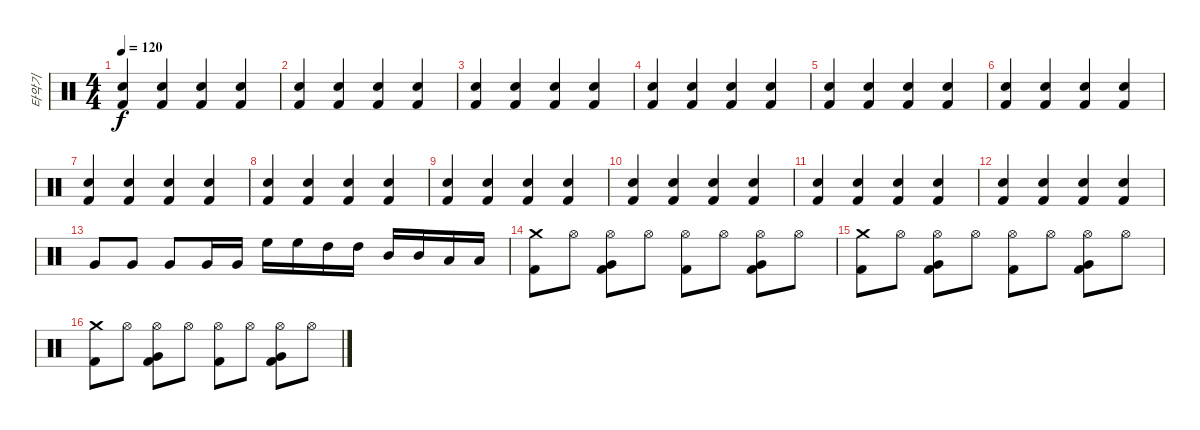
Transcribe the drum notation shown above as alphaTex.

\track ("타악기" "타악기") {instrument percussion}
\staff {score}
\articulation defaults
\ts (4 4)
\tempo 120
\clef neutral
\ks c
("Kick (hit) 2" "Hand Clap (hit)").4{dy f} ("Kick (hit) 2" "Hand Clap (hit)").4 ("Kick (hit) 2" "Hand Clap (hit)").4 ("Kick (hit) 2" "Hand Clap (hit)").4 |
("Kick (hit) 2" "Hand Clap (hit)").4 ("Kick (hit) 2" "Hand Clap (hit)").4 ("Kick (hit) 2" "Hand Clap (hit)").4 ("Kick (hit) 2" "Hand Clap (hit)").4 |
("Kick (hit) 2" "Hand Clap (hit)").4 ("Kick (hit) 2" "Hand Clap (hit)").4 ("Kick (hit) 2" "Hand Clap (hit)").4 ("Kick (hit) 2" "Hand Clap (hit)").4 |
("Kick (hit) 2" "Hand Clap (hit)").4 ("Kick (hit) 2" "Hand Clap (hit)").4 ("Kick (hit) 2" "Hand Clap (hit)").4 ("Kick (hit) 2" "Hand Clap (hit)").4 |
("Kick (hit) 2" "Hand Clap (hit)").4 ("Kick (hit) 2" "Hand Clap (hit)").4 ("Kick (hit) 2" "Hand Clap (hit)").4 ("Kick (hit) 2" "Hand Clap (hit)").4 |
("Kick (hit) 2" "Hand Clap (hit)").4 ("Kick (hit) 2" "Hand Clap (hit)").4 ("Kick (hit) 2" "Hand Clap (hit)").4 ("Kick (hit) 2" "Hand Clap (hit)").4 |
("Kick (hit) 2" "Hand Clap (hit)").4 ("Kick (hit) 2" "Hand Clap (hit)").4 ("Kick (hit) 2" "Hand Clap (hit)").4 ("Kick (hit) 2" "Hand Clap (hit)").4 |
("Kick (hit) 2" "Hand Clap (hit)").4 ("Kick (hit) 2" "Hand Clap (hit)").4 ("Kick (hit) 2" "Hand Clap (hit)").4 ("Kick (hit) 2" "Hand Clap (hit)").4 |
("Kick (hit) 2" "Hand Clap (hit)").4 ("Kick (hit) 2" "Hand Clap (hit)").4 ("Kick (hit) 2" "Hand Clap (hit)").4 ("Kick (hit) 2" "Hand Clap (hit)").4 |
("Kick (hit) 2" "Hand Clap (hit)").4 ("Kick (hit) 2" "Hand Clap (hit)").4 ("Kick (hit) 2" "Hand Clap (hit)").4 ("Kick (hit) 2" "Hand Clap (hit)").4 |
("Kick (hit) 2" "Hand Clap (hit)").4 ("Kick (hit) 2" "Hand Clap (hit)").4 ("Kick (hit) 2" "Hand Clap (hit)").4 ("Kick (hit) 2" "Hand Clap (hit)").4 |
("Kick (hit) 2" "Hand Clap (hit)").4 ("Kick (hit) 2" "Hand Clap (hit)").4 ("Kick (hit) 2" "Hand Clap (hit)").4 ("Kick (hit) 2" "Hand Clap (hit)").4 |
"Very Low Tom (hit)".8 "Very Low Tom (hit)".8 "Very Low Tom (hit)".8 "Very Low Tom (hit)".16 "Very Low Tom (hit)".16 "High Floor Tom (hit)".16 "High Floor Tom (hit)".16 "High Tom (hit)".16 "High Tom (hit)".16 "Mid Tom (hit)".16 "Mid Tom (hit)".16 "Low Tom (hit)".16 "Low Tom (hit)".16 |
("Kick (hit) 2" "Crash medium (hit)").8 "Hi-Hat (open)".8 ("Kick (hit) 2" "Very Low Tom (hit)" "Hi-Hat (open)").8 "Hi-Hat (open)".8 ("Kick (hit) 2" "Hi-Hat (open)").8 "Hi-Hat (open)".8 ("Kick (hit) 2" "Very Low Tom (hit)" "Hi-Hat (open)").8 "Hi-Hat (open)".8 |
("Kick (hit) 2" "Crash medium (hit)").8 "Hi-Hat (open)".8 ("Kick (hit) 2" "Very Low Tom (hit)" "Hi-Hat (open)").8 "Hi-Hat (open)".8 ("Kick (hit) 2" "Hi-Hat (open)").8 "Hi-Hat (open)".8 ("Kick (hit) 2" "Very Low Tom (hit)" "Hi-Hat (open)").8 "Hi-Hat (open)".8 |
("Kick (hit) 2" "Crash medium (hit)").8 "Hi-Hat (open)".8 ("Kick (hit) 2" "Very Low Tom (hit)" "Hi-Hat (open)").8 "Hi-Hat (open)".8 ("Kick (hit) 2" "Hi-Hat (open)").8 "Hi-Hat (open)".8 ("Kick (hit) 2" "Very Low Tom (hit)" "Hi-Hat (open)").8 "Hi-Hat (open)".8
